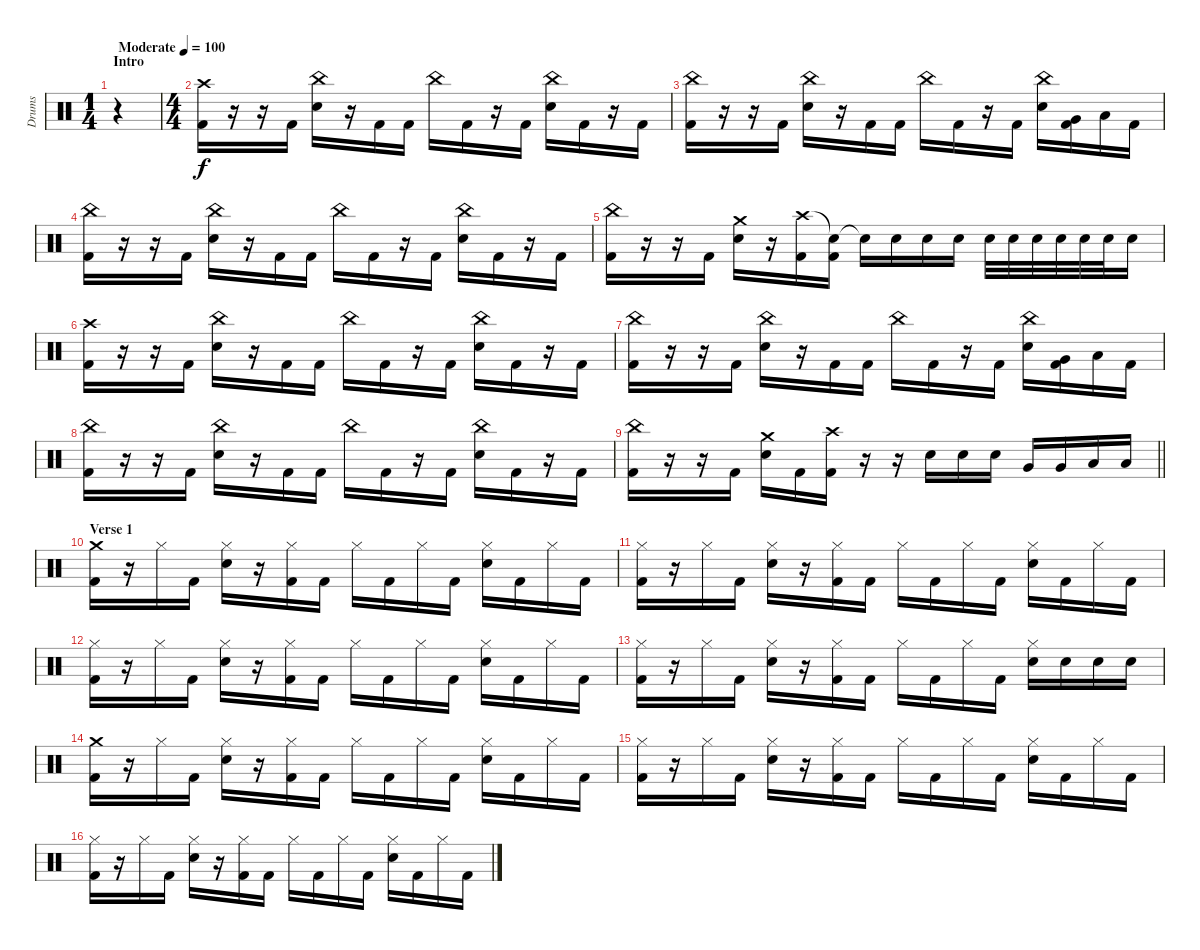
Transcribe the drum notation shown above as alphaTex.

\track ("Drums" "Drums") {instrument percussion}
\staff {score}
\articulation defaults
\ts (1 4)
\section ("" "Intro")
\tempo (100 "Moderate")
\clef neutral
\ks c
r.4{dy f} |
\ts (4 4)
("Crash high (hit)" "Kick (hit) 2").16 r.16 r.16 "Kick (hit) 2".16 ("China (hit)" "Electric Snare (hit)").16 r.16 "Kick (hit) 2".16 "Kick (hit) 2".16 "China (hit)".16 "Kick (hit) 2".16 r.16 "Kick (hit) 2".16 ("China (hit)" "Electric Snare (hit)").16 "Kick (hit) 2".16 r.16 "Kick (hit) 2".16 |
("China (hit)" "Kick (hit) 2").16 r.16 r.16 "Kick (hit) 2".16 ("China (hit)" "Electric Snare (hit)").16 r.16 "Kick (hit) 2".16 "Kick (hit) 2".16 "China (hit)".16 "Kick (hit) 2".16 r.16 "Kick (hit) 2".16 ("China (hit)" "Electric Snare (hit)").16 ("Very Low Tom (hit)" "Kick (hit) 2").16 "Low Floor Tom (hit)".16 "Kick (hit) 2".16 |
("China (hit)" "Kick (hit) 2").16 r.16 r.16 "Kick (hit) 2".16 ("China (hit)" "Electric Snare (hit)").16 r.16 "Kick (hit) 2".16 "Kick (hit) 2".16 "China (hit)".16 "Kick (hit) 2".16 r.16 "Kick (hit) 2".16 ("China (hit)" "Electric Snare (hit)").16 "Kick (hit) 2".16 r.16 "Kick (hit) 2".16 |
("China (hit)" "Kick (hit) 2").16 r.16 r.16 "Kick (hit) 2".16 ("Crash medium (hit)" "Electric Snare (hit)").16 r.16 ("Crash high (hit)" "Kick (hit) 2").16 ("Snare (hit)"{t} "Kick (hit) 2").16 "Snare (hit)"{t}.16 "Electric Snare (hit)".16 "Electric Snare (hit)".16 "Electric Snare (hit)".16 "Electric Snare (hit)".32 "Electric Snare (hit)".32 "Electric Snare (hit)".32 "Electric Snare (hit)".32 "Electric Snare (hit)".32 "Electric Snare (hit)".32 "Electric Snare (hit)".16 |
("Crash high (hit)" "Kick (hit) 2").16 r.16 r.16 "Kick (hit) 2".16 ("China (hit)" "Electric Snare (hit)").16 r.16 "Kick (hit) 2".16 "Kick (hit) 2".16 "China (hit)".16 "Kick (hit) 2".16 r.16 "Kick (hit) 2".16 ("China (hit)" "Electric Snare (hit)").16 "Kick (hit) 2".16 r.16 "Kick (hit) 2".16 |
("China (hit)" "Kick (hit) 2").16 r.16 r.16 "Kick (hit) 2".16 ("China (hit)" "Electric Snare (hit)").16 r.16 "Kick (hit) 2".16 "Kick (hit) 2".16 "China (hit)".16 "Kick (hit) 2".16 r.16 "Kick (hit) 2".16 ("China (hit)" "Electric Snare (hit)").16 ("Very Low Tom (hit)" "Kick (hit) 2").16 "Low Floor Tom (hit)".16 "Kick (hit) 2".16 |
("China (hit)" "Kick (hit) 2").16 r.16 r.16 "Kick (hit) 2".16 ("China (hit)" "Electric Snare (hit)").16 r.16 "Kick (hit) 2".16 "Kick (hit) 2".16 "China (hit)".16 "Kick (hit) 2".16 r.16 "Kick (hit) 2".16 ("China (hit)" "Electric Snare (hit)").16 "Kick (hit) 2".16 r.16 "Kick (hit) 2".16 |
\barLineRight lightlight
("China (hit)" "Kick (hit) 2").16 r.16 r.16 "Kick (hit) 2".16 ("Crash medium (hit)" "Electric Snare (hit)").16 "Kick (hit) 2".16 ("Crash high (hit)" "Kick (hit) 2").16 r.16 r.16 "Electric Snare (hit)".16 "Electric Snare (hit)".16 "Electric Snare (hit)".16 "Very Low Tom (hit)".16 "Very Low Tom (hit)".16 "Low Floor Tom (hit)".16 "Low Floor Tom (hit)".16 |
\section ("" "Verse 1")
("Crash medium (hit)" "Kick (hit) 2").16 r.16 "Hi-Hat (closed)".16 "Kick (hit) 2".16 ("Hi-Hat (closed)" "Electric Snare (hit)").16 r.16 ("Hi-Hat (closed)" "Kick (hit) 2").16 "Kick (hit) 2".16 "Hi-Hat (closed)".16 "Kick (hit) 2".16 "Hi-Hat (closed)".16 "Kick (hit) 2".16 ("Hi-Hat (closed)" "Electric Snare (hit)").16 "Kick (hit) 2".16 "Hi-Hat (closed)".16 "Kick (hit) 2".16 |
("Hi-Hat (closed)" "Kick (hit) 2").16 r.16 "Hi-Hat (closed)".16 "Kick (hit) 2".16 ("Hi-Hat (closed)" "Electric Snare (hit)").16 r.16 ("Hi-Hat (closed)" "Kick (hit) 2").16 "Kick (hit) 2".16 "Hi-Hat (closed)".16 "Kick (hit) 2".16 "Hi-Hat (closed)".16 "Kick (hit) 2".16 ("Hi-Hat (closed)" "Electric Snare (hit)").16 "Kick (hit) 2".16 "Hi-Hat (closed)".16 "Kick (hit) 2".16 |
("Hi-Hat (closed)" "Kick (hit) 2").16 r.16 "Hi-Hat (closed)".16 "Kick (hit) 2".16 ("Hi-Hat (closed)" "Electric Snare (hit)").16 r.16 ("Hi-Hat (closed)" "Kick (hit) 2").16 "Kick (hit) 2".16 "Hi-Hat (closed)".16 "Kick (hit) 2".16 "Hi-Hat (closed)".16 "Kick (hit) 2".16 ("Hi-Hat (closed)" "Electric Snare (hit)").16 "Kick (hit) 2".16 "Hi-Hat (closed)".16 "Kick (hit) 2".16 |
("Hi-Hat (closed)" "Kick (hit) 2").16 r.16 "Hi-Hat (closed)".16 "Kick (hit) 2".16 ("Hi-Hat (closed)" "Electric Snare (hit)").16 r.16 ("Hi-Hat (closed)" "Kick (hit) 2").16 "Kick (hit) 2".16 "Hi-Hat (closed)".16 "Kick (hit) 2".16 "Hi-Hat (closed)".16 "Kick (hit) 2".16 ("Hi-Hat (closed)" "Electric Snare (hit)").16 "Electric Snare (hit)".16 "Electric Snare (hit)".16 "Electric Snare (hit)".16 |
("Crash medium (hit)" "Kick (hit) 2").16 r.16 "Hi-Hat (closed)".16 "Kick (hit) 2".16 ("Hi-Hat (closed)" "Electric Snare (hit)").16 r.16 ("Hi-Hat (closed)" "Kick (hit) 2").16 "Kick (hit) 2".16 "Hi-Hat (closed)".16 "Kick (hit) 2".16 "Hi-Hat (closed)".16 "Kick (hit) 2".16 ("Hi-Hat (closed)" "Electric Snare (hit)").16 "Kick (hit) 2".16 "Hi-Hat (closed)".16 "Kick (hit) 2".16 |
("Hi-Hat (closed)" "Kick (hit) 2").16 r.16 "Hi-Hat (closed)".16 "Kick (hit) 2".16 ("Hi-Hat (closed)" "Electric Snare (hit)").16 r.16 ("Hi-Hat (closed)" "Kick (hit) 2").16 "Kick (hit) 2".16 "Hi-Hat (closed)".16 "Kick (hit) 2".16 "Hi-Hat (closed)".16 "Kick (hit) 2".16 ("Hi-Hat (closed)" "Electric Snare (hit)").16 "Kick (hit) 2".16 "Hi-Hat (closed)".16 "Kick (hit) 2".16 |
("Hi-Hat (closed)" "Kick (hit) 2").16 r.16 "Hi-Hat (closed)".16 "Kick (hit) 2".16 ("Hi-Hat (closed)" "Electric Snare (hit)").16 r.16 ("Hi-Hat (closed)" "Kick (hit) 2").16 "Kick (hit) 2".16 "Hi-Hat (closed)".16 "Kick (hit) 2".16 "Hi-Hat (closed)".16 "Kick (hit) 2".16 ("Hi-Hat (closed)" "Electric Snare (hit)").16 "Kick (hit) 2".16 "Hi-Hat (closed)".16 "Kick (hit) 2".16
